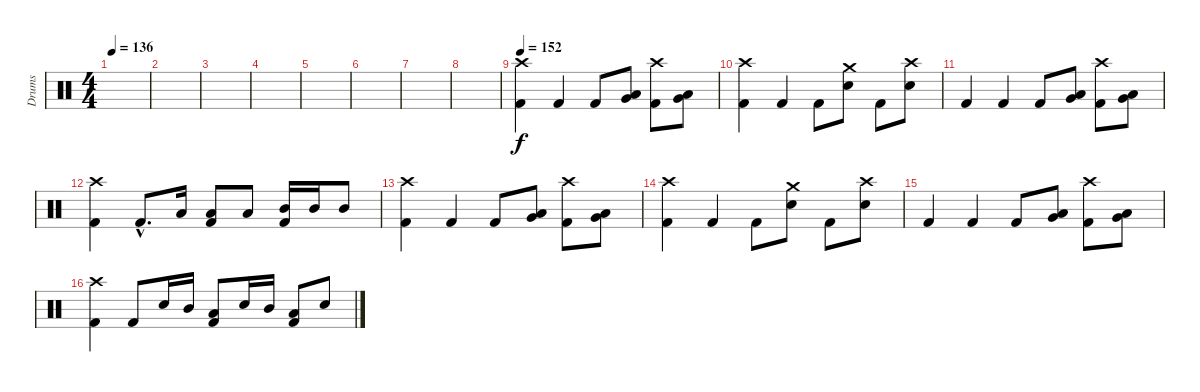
\track ("Drums" "Drums") {instrument percussion}
\staff {score}
\articulation defaults
\ts (4 4)
\tempo 136
\clef neutral
\ks c
|
|
|
|
|
|
|
|
\tempo 140
\tempo 152
("Crash high (hit)" "Kick (hit) 2").4 "Kick (hit) 2".4 "Kick (hit) 2".8 ("Low Tom (hit)" "Very Low Tom (hit)").8 ("Crash high (hit)" "Kick (hit) 2").8 ("Low Tom (hit)" "Very Low Tom (hit)").8 |
("Crash high (hit)" "Kick (hit) 2").4 "Kick (hit) 2".4 "Kick (hit) 2".8 ("Crash medium (hit)" "Snare (hit) 2").8 "Kick (hit) 2".8 ("Crash high (hit)" "Snare (hit) 2").8 |
"Kick (hit) 2".4 "Kick (hit) 2".4 "Kick (hit) 2".8 ("Low Tom (hit)" "Very Low Tom (hit)").8 ("Crash high (hit)" "Kick (hit) 2").8 ("Low Tom (hit)" "Very Low Tom (hit)").8 |
("Crash high (hit)" "Kick (hit) 2").4 "Kick (hit) 2"{hac}.8{d} "Low Tom (hit)".16 ("Low Tom (hit)" "Kick (hit) 2").8 "Low Tom (hit)".8 ("Mid Tom (hit)" "Kick (hit) 2").16 "Mid Tom (hit)".16 "Mid Tom (hit)".8 |
("Crash high (hit)" "Kick (hit) 2").4 "Kick (hit) 2".4 "Kick (hit) 2".8 ("Low Tom (hit)" "Very Low Tom (hit)").8 ("Crash high (hit)" "Kick (hit) 2").8 ("Low Tom (hit)" "Very Low Tom (hit)").8 |
("Crash high (hit)" "Kick (hit) 2").4 "Kick (hit) 2".4 "Kick (hit) 2".8 ("Crash medium (hit)" "Snare (hit) 2").8 "Kick (hit) 2".8 ("Crash high (hit)" "Snare (hit) 2").8 |
"Kick (hit) 2".4 "Kick (hit) 2".4 "Kick (hit) 2".8 ("Low Tom (hit)" "Very Low Tom (hit)").8 ("Crash high (hit)" "Kick (hit) 2").8 ("Low Tom (hit)" "Very Low Tom (hit)").8 |
("Crash high (hit)" "Kick (hit) 2").4 "Kick (hit) 2".8 "Snare (hit) 2".16 "Mid Tom (hit)".16 ("Low Tom (hit)" "Kick (hit) 2").8 "Snare (hit) 2".16 "Mid Tom (hit)".16 ("Low Tom (hit)" "Kick (hit) 2").8 "Snare (hit) 2".8
